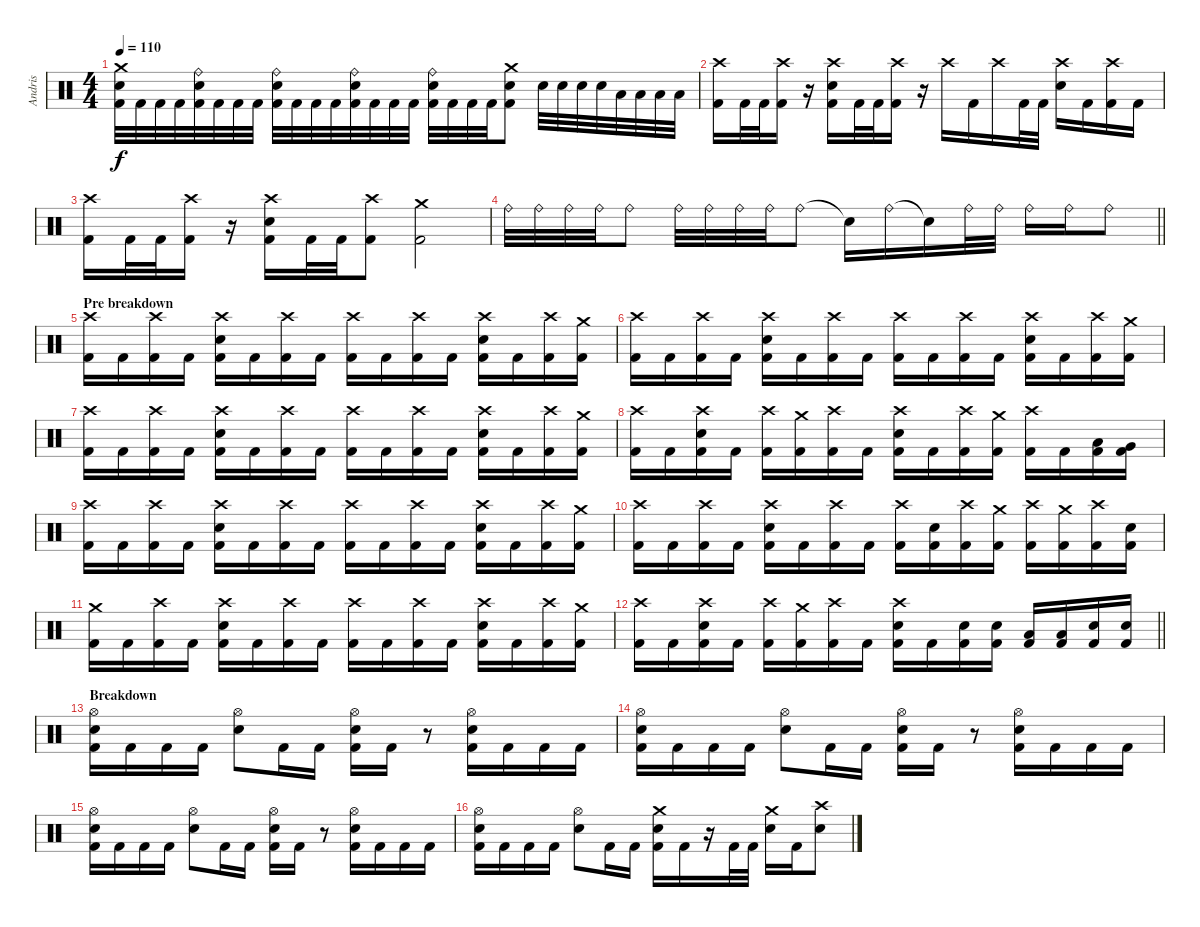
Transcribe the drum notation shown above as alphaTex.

\track ("Andris" "Andris") {instrument percussion}
\staff {score}
\articulation defaults
\ts (4 4)
\tempo 110
\clef neutral
\ks c
("Crash medium (hit)" "Electric Snare (hit)" "Kick (hit) 2").32{dy f} "Kick (hit) 2".32 "Kick (hit) 2".32 "Kick (hit) 2".32 ("Ride (bell)" "Electric Snare (hit)" "Kick (hit) 2").32 "Kick (hit) 2".32 "Kick (hit) 2".32 "Kick (hit) 2".32 ("Ride (bell)" "Electric Snare (hit)" "Kick (hit) 2").32 "Kick (hit) 2".32 "Kick (hit) 2".32 "Kick (hit) 2".32 ("Ride (bell)" "Electric Snare (hit)" "Kick (hit) 2").32 "Kick (hit) 2".32 "Kick (hit) 2".32 "Kick (hit) 2".32 ("Ride (bell)" "Electric Snare (hit)" "Kick (hit) 2").32 "Kick (hit) 2".32 "Kick (hit) 2".32 "Kick (hit) 2".32 ("Crash medium (hit)" "Electric Snare (hit)" "Kick (hit) 2").8 "Electric Snare (hit)".32 "Electric Snare (hit)".32 "Electric Snare (hit)".32 "Electric Snare (hit)".32 "Low Tom (hit)".32 "Low Tom (hit)".32 "Low Tom (hit)".32 "Low Tom (hit)".32 |
("Crash high (hit)" "Kick (hit) 2").16 "Kick (hit) 2".32 "Kick (hit) 2".32 ("Crash high (hit)" "Kick (hit) 2").16 r.16 ("Crash high (hit)" "Electric Snare (hit)" "Kick (hit) 2").16 "Kick (hit) 2".32 "Kick (hit) 2".32 ("Crash high (hit)" "Kick (hit) 2").16 r.16 "Crash high (hit)".16 "Kick (hit) 2".16 "Crash high (hit)".16 "Kick (hit) 2".32 "Kick (hit) 2".32 ("Crash high (hit)" "Electric Snare (hit)").16 "Kick (hit) 2".16 ("Crash high (hit)" "Kick (hit) 2").16 "Kick (hit) 2".16 |
("Crash high (hit)" "Kick (hit) 2").16 "Kick (hit) 2".32 "Kick (hit) 2".32 ("Crash high (hit)" "Kick (hit) 2").16 r.16 ("Crash high (hit)" "Electric Snare (hit)" "Kick (hit) 2").16 "Kick (hit) 2".32 "Kick (hit) 2".32 ("Crash high (hit)" "Kick (hit) 2").8 ("Crash medium (hit)" "Kick (hit) 2").2 |
\barLineRight lightlight "Ride (bell)".32 "Ride (bell)".32 "Ride (bell)".32 "Ride (bell)".32 "Ride (bell)".8 "Ride (bell)".32 "Ride (bell)".32 "Ride (bell)".32 "Ride (bell)".32 "Ride (bell)".8 "Snare (hit)"{t}.16 "Ride (bell)".16 "Snare (hit)"{t}.16 "Ride (bell)".32 "Ride (bell)".32 "Ride (bell)".16 "Ride (bell)".16 "Ride (bell)".8
|
\section ("" "Pre breakdown")
("Crash high (hit)" "Kick (hit) 2").16 "Kick (hit) 2".16 ("Crash high (hit)" "Kick (hit) 2").16 "Kick (hit) 2".16 ("Crash high (hit)" "Electric Snare (hit)" "Kick (hit) 2").16 "Kick (hit) 2".16 ("Crash high (hit)" "Kick (hit) 2").16 "Kick (hit) 2".16 ("Crash high (hit)" "Kick (hit) 2").16 "Kick (hit) 2".16 ("Crash high (hit)" "Kick (hit) 2").16 "Kick (hit) 2".16 ("Crash high (hit)" "Electric Snare (hit)" "Kick (hit) 2").16 "Kick (hit) 2".16 ("Crash high (hit)" "Kick (hit) 2").16 ("Crash medium (hit)" "Kick (hit) 2").16 |
("Crash high (hit)" "Kick (hit) 2").16 "Kick (hit) 2".16 ("Crash high (hit)" "Kick (hit) 2").16 "Kick (hit) 2".16 ("Crash high (hit)" "Electric Snare (hit)" "Kick (hit) 2").16 "Kick (hit) 2".16 ("Crash high (hit)" "Kick (hit) 2").16 "Kick (hit) 2".16 ("Crash high (hit)" "Kick (hit) 2").16 "Kick (hit) 2".16 ("Crash high (hit)" "Kick (hit) 2").16 "Kick (hit) 2".16 ("Crash high (hit)" "Electric Snare (hit)" "Kick (hit) 2").16 "Kick (hit) 2".16 ("Crash high (hit)" "Kick (hit) 2").16 ("Crash medium (hit)" "Kick (hit) 2").16 |
("Crash high (hit)" "Kick (hit) 2").16 "Kick (hit) 2".16 ("Crash high (hit)" "Kick (hit) 2").16 "Kick (hit) 2".16 ("Crash high (hit)" "Electric Snare (hit)" "Kick (hit) 2").16 "Kick (hit) 2".16 ("Crash high (hit)" "Kick (hit) 2").16 "Kick (hit) 2".16 ("Crash high (hit)" "Kick (hit) 2").16 "Kick (hit) 2".16 ("Crash high (hit)" "Kick (hit) 2").16 "Kick (hit) 2".16 ("Crash high (hit)" "Electric Snare (hit)" "Kick (hit) 2").16 "Kick (hit) 2".16 ("Crash high (hit)" "Kick (hit) 2").16 ("Crash medium (hit)" "Kick (hit) 2").16 |
("Crash high (hit)" "Kick (hit) 2").16 "Kick (hit) 2".16 ("Crash high (hit)" "Electric Snare (hit)" "Kick (hit) 2").16 "Kick (hit) 2".16 ("Crash high (hit)" "Kick (hit) 2").16 ("Crash medium (hit)" "Kick (hit) 2").16 ("Crash high (hit)" "Kick (hit) 2").16 "Kick (hit) 2".16 ("Crash high (hit)" "Electric Snare (hit)" "Kick (hit) 2").16 "Kick (hit) 2".16 ("Crash high (hit)" "Kick (hit) 2").16 ("Crash medium (hit)" "Kick (hit) 2").16 ("Crash high (hit)" "Kick (hit) 2").16 "Kick (hit) 2".16 ("Low Tom (hit)" "Kick (hit) 2").16 ("Very Low Tom (hit)" "Kick (hit) 2").16 |
("Crash high (hit)" "Kick (hit) 2").16 "Kick (hit) 2".16 ("Crash high (hit)" "Kick (hit) 2").16 "Kick (hit) 2".16 ("Crash high (hit)" "Electric Snare (hit)" "Kick (hit) 2").16 "Kick (hit) 2".16 ("Crash high (hit)" "Kick (hit) 2").16 "Kick (hit) 2".16 ("Crash high (hit)" "Kick (hit) 2").16 "Kick (hit) 2".16 ("Crash high (hit)" "Kick (hit) 2").16 "Kick (hit) 2".16 ("Crash high (hit)" "Electric Snare (hit)" "Kick (hit) 2").16 "Kick (hit) 2".16 ("Crash high (hit)" "Kick (hit) 2").16 ("Crash medium (hit)" "Kick (hit) 2").16 |
("Crash high (hit)" "Kick (hit) 2").16 "Kick (hit) 2".16 ("Crash high (hit)" "Kick (hit) 2").16 "Kick (hit) 2".16 ("Crash high (hit)" "Electric Snare (hit)" "Kick (hit) 2").16 "Kick (hit) 2".16 ("Crash high (hit)" "Kick (hit) 2").16 "Kick (hit) 2".16 ("Crash high (hit)" "Kick (hit) 2").16 ("Electric Snare (hit)" "Kick (hit) 2").16 ("Crash high (hit)" "Kick (hit) 2").16 ("Crash medium (hit)" "Kick (hit) 2").16 ("Crash high (hit)" "Kick (hit) 2").16 ("Crash medium (hit)" "Kick (hit) 2").16 ("Crash high (hit)" "Kick (hit) 2").16 ("Electric Snare (hit)" "Kick (hit) 2").16 |
("Crash medium (hit)" "Kick (hit) 2").16 "Kick (hit) 2".16 ("Crash high (hit)" "Kick (hit) 2").16 "Kick (hit) 2".16 ("Crash high (hit)" "Electric Snare (hit)" "Kick (hit) 2").16 "Kick (hit) 2".16 ("Crash high (hit)" "Kick (hit) 2").16 "Kick (hit) 2".16 ("Crash high (hit)" "Kick (hit) 2").16 "Kick (hit) 2".16 ("Crash high (hit)" "Kick (hit) 2").16 "Kick (hit) 2".16 ("Crash high (hit)" "Electric Snare (hit)" "Kick (hit) 2").16 "Kick (hit) 2".16 ("Crash high (hit)" "Kick (hit) 2").16 ("Crash medium (hit)" "Kick (hit) 2").16 |
\barLineRight lightlight
("Crash high (hit)" "Kick (hit) 2").16 "Kick (hit) 2".16 ("Crash high (hit)" "Electric Snare (hit)" "Kick (hit) 2").16 "Kick (hit) 2".16 ("Crash high (hit)" "Kick (hit) 2").16 ("Crash medium (hit)" "Kick (hit) 2").16 ("Crash high (hit)" "Kick (hit) 2").16 "Kick (hit) 2".16 ("Crash high (hit)" "Electric Snare (hit)" "Kick (hit) 2").16 "Kick (hit) 2".16 ("Electric Snare (hit)" "Kick (hit) 2").16 ("Electric Snare (hit)" "Kick (hit) 2").16 ("Low Tom (hit)" "Kick (hit) 2").16 ("Low Tom (hit)" "Kick (hit) 2").16 ("Electric Snare (hit)" "Kick (hit) 2").16 ("Electric Snare (hit)" "Kick (hit) 2").16 |
\section ("" "Breakdown")
("Hi-Hat (open)" "Electric Snare (hit)" "Kick (hit) 2").16 "Kick (hit) 2".16 "Kick (hit) 2".16 "Kick (hit) 2".16 ("Hi-Hat (open)" "Electric Snare (hit)").8 "Kick (hit) 2".16 "Kick (hit) 2".16 ("Hi-Hat (open)" "Electric Snare (hit)" "Kick (hit) 2").16 "Kick (hit) 2".16 r.8 ("Hi-Hat (open)" "Electric Snare (hit)" "Kick (hit) 2").16 "Kick (hit) 2".16 "Kick (hit) 2".16 "Kick (hit) 2".16 |
("Hi-Hat (open)" "Electric Snare (hit)" "Kick (hit) 2").16 "Kick (hit) 2".16 "Kick (hit) 2".16 "Kick (hit) 2".16 ("Hi-Hat (open)" "Electric Snare (hit)").8 "Kick (hit) 2".16 "Kick (hit) 2".16 ("Hi-Hat (open)" "Electric Snare (hit)" "Kick (hit) 2").16 "Kick (hit) 2".16 r.8 ("Hi-Hat (open)" "Electric Snare (hit)" "Kick (hit) 2").16 "Kick (hit) 2".16 "Kick (hit) 2".16 "Kick (hit) 2".16 |
("Hi-Hat (open)" "Electric Snare (hit)" "Kick (hit) 2").16 "Kick (hit) 2".16 "Kick (hit) 2".16 "Kick (hit) 2".16 ("Hi-Hat (open)" "Electric Snare (hit)").8 "Kick (hit) 2".16 "Kick (hit) 2".16 ("Hi-Hat (open)" "Electric Snare (hit)" "Kick (hit) 2").16 "Kick (hit) 2".16 r.8 ("Hi-Hat (open)" "Electric Snare (hit)" "Kick (hit) 2").16 "Kick (hit) 2".16 "Kick (hit) 2".16 "Kick (hit) 2".16 |
("Hi-Hat (open)" "Electric Snare (hit)" "Kick (hit) 2").16 "Kick (hit) 2".16 "Kick (hit) 2".16 "Kick (hit) 2".16 ("Hi-Hat (open)" "Electric Snare (hit)").8 "Kick (hit) 2".16 "Kick (hit) 2".16 ("Crash medium (hit)" "Electric Snare (hit)" "Kick (hit) 2").16 "Kick (hit) 2".16 r.16 "Kick (hit) 2".32 "Kick (hit) 2".32 ("Crash medium (hit)" "Electric Snare (hit)").16 "Kick (hit) 2".16 ("Crash high (hit)" "Electric Snare (hit)").8
